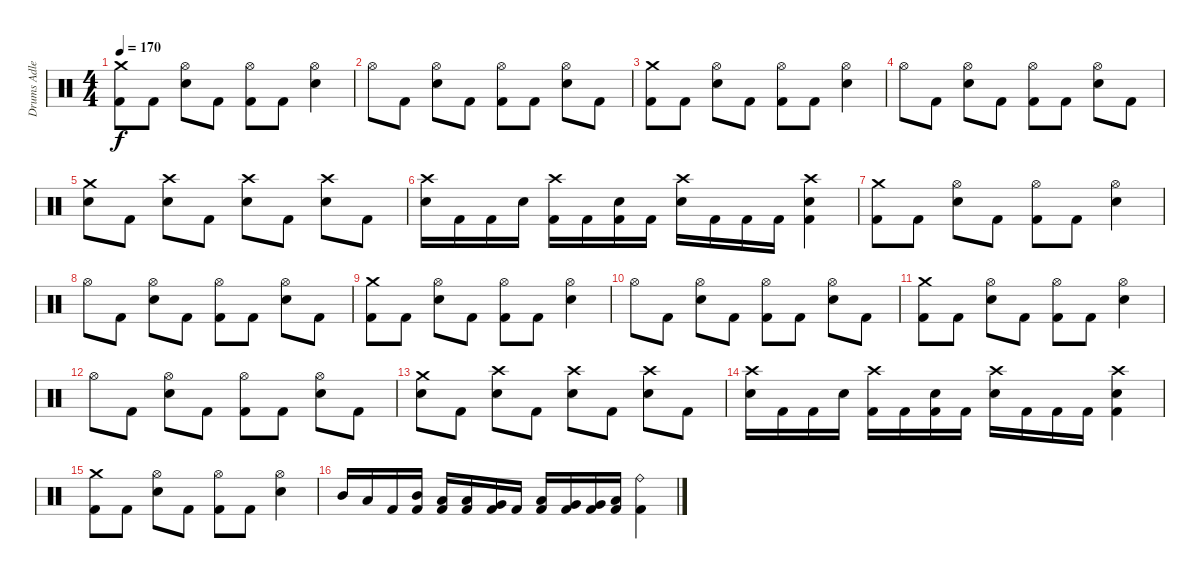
\track ("Drums Adler" "Drums Adle") {instrument percussion}
\staff {score}
\articulation defaults
\ts (4 4)
\tempo 170
\clef neutral
\ks c
("Crash medium (hit)" "Kick (hit) 2").8{dy f} "Kick (hit) 2".8 ("Hi-Hat (open)" "Snare (hit) 2").8 "Kick (hit) 2".8 ("Hi-Hat (open)" "Kick (hit) 2").8 "Kick (hit) 2".8 ("Hi-Hat (open)" "Snare (hit) 2").4 |
"Hi-Hat (open)".8 "Kick (hit) 2".8 ("Hi-Hat (open)" "Snare (hit) 2").8 "Kick (hit) 2".8 ("Hi-Hat (open)" "Kick (hit) 2").8 "Kick (hit) 2".8 ("Hi-Hat (open)" "Snare (hit) 2").8 "Kick (hit) 2".8 |
("Crash medium (hit)" "Kick (hit) 2").8 "Kick (hit) 2".8 ("Hi-Hat (open)" "Snare (hit) 2").8 "Kick (hit) 2".8 ("Hi-Hat (open)" "Kick (hit) 2").8 "Kick (hit) 2".8 ("Hi-Hat (open)" "Snare (hit) 2").4 |
"Hi-Hat (open)".8 "Kick (hit) 2".8 ("Hi-Hat (open)" "Snare (hit) 2").8 "Kick (hit) 2".8 ("Hi-Hat (open)" "Kick (hit) 2").8 "Kick (hit) 2".8 ("Hi-Hat (open)" "Snare (hit) 2").8 "Kick (hit) 2".8 |
("Crash medium (hit)" "Snare (hit) 2").8 "Kick (hit) 2".8 ("Crash high (hit)" "Snare (hit) 2").8 "Kick (hit) 2".8 ("Crash high (hit)" "Snare (hit) 2").8 "Kick (hit) 2".8 ("Crash high (hit)" "Snare (hit) 2").8 "Kick (hit) 2".8 |
("Crash high (hit)" "Snare (hit) 2").16 "Kick (hit) 2".16 "Kick (hit) 2".16 "Snare (hit) 2".16 ("Crash high (hit)" "Kick (hit) 2").16 "Kick (hit) 2".16 ("Snare (hit) 2" "Kick (hit) 2").16 "Kick (hit) 2".16 ("Crash high (hit)" "Snare (hit) 2").16 "Kick (hit) 2".16 "Kick (hit) 2".16 "Kick (hit) 2".16 ("Crash high (hit)" "Snare (hit) 2" "Kick (hit) 2").4 |
("Crash medium (hit)" "Kick (hit) 2").8 "Kick (hit) 2".8 ("Hi-Hat (open)" "Snare (hit) 2").8 "Kick (hit) 2".8 ("Hi-Hat (open)" "Kick (hit) 2").8 "Kick (hit) 2".8 ("Hi-Hat (open)" "Snare (hit) 2").4 |
"Hi-Hat (open)".8 "Kick (hit) 2".8 ("Hi-Hat (open)" "Snare (hit) 2").8 "Kick (hit) 2".8 ("Hi-Hat (open)" "Kick (hit) 2").8 "Kick (hit) 2".8 ("Hi-Hat (open)" "Snare (hit) 2").8 "Kick (hit) 2".8 |
("Crash medium (hit)" "Kick (hit) 2").8 "Kick (hit) 2".8 ("Hi-Hat (open)" "Snare (hit) 2").8 "Kick (hit) 2".8 ("Hi-Hat (open)" "Kick (hit) 2").8 "Kick (hit) 2".8 ("Hi-Hat (open)" "Snare (hit) 2").4 |
"Hi-Hat (open)".8 "Kick (hit) 2".8 ("Hi-Hat (open)" "Snare (hit) 2").8 "Kick (hit) 2".8 ("Hi-Hat (open)" "Kick (hit) 2").8 "Kick (hit) 2".8 ("Hi-Hat (open)" "Snare (hit) 2").8 "Kick (hit) 2".8 |
("Crash medium (hit)" "Kick (hit) 2").8 "Kick (hit) 2".8 ("Hi-Hat (open)" "Snare (hit) 2").8 "Kick (hit) 2".8 ("Hi-Hat (open)" "Kick (hit) 2").8 "Kick (hit) 2".8 ("Hi-Hat (open)" "Snare (hit) 2").4 |
"Hi-Hat (open)".8 "Kick (hit) 2".8 ("Hi-Hat (open)" "Snare (hit) 2").8 "Kick (hit) 2".8 ("Hi-Hat (open)" "Kick (hit) 2").8 "Kick (hit) 2".8 ("Hi-Hat (open)" "Snare (hit) 2").8 "Kick (hit) 2".8 |
("Crash medium (hit)" "Snare (hit) 2").8 "Kick (hit) 2".8 ("Crash high (hit)" "Snare (hit) 2").8 "Kick (hit) 2".8 ("Crash high (hit)" "Snare (hit) 2").8 "Kick (hit) 2".8 ("Crash high (hit)" "Snare (hit) 2").8 "Kick (hit) 2".8 |
("Crash high (hit)" "Snare (hit) 2").16 "Kick (hit) 2".16 "Kick (hit) 2".16 "Snare (hit) 2".16 ("Crash high (hit)" "Kick (hit) 2").16 "Kick (hit) 2".16 ("Snare (hit) 2" "Kick (hit) 2").16 "Kick (hit) 2".16 ("Crash high (hit)" "Snare (hit) 2").16 "Kick (hit) 2".16 "Kick (hit) 2".16 "Kick (hit) 2".16 ("Crash high (hit)" "Snare (hit) 2" "Kick (hit) 2").4 |
("Crash medium (hit)" "Kick (hit) 2").8 "Kick (hit) 2".8 ("Hi-Hat (open)" "Snare (hit) 2").8 "Kick (hit) 2".8 ("Hi-Hat (open)" "Kick (hit) 2").8 "Kick (hit) 2".8 ("Hi-Hat (open)" "Snare (hit) 2").4 |
"Mid Tom (hit)".16 "Low Tom (hit)".16 "Kick (hit) 2".16 ("Mid Tom (hit)" "Kick (hit) 2").16 ("Low Tom (hit)" "Kick (hit) 2").16 ("Low Tom (hit)" "Kick (hit) 2").16 ("Very Low Tom (hit)" "Kick (hit) 2").16 "Kick (hit) 2".16 ("Low Tom (hit)" "Kick (hit) 2").16 ("Very Low Tom (hit)" "Kick (hit) 2").16 ("Very Low Tom (hit)" "Kick (hit) 2").16 ("Low Floor Tom (hit)" "Kick (hit) 2").16 ("Ride (bell)" "Kick (hit) 2").4
